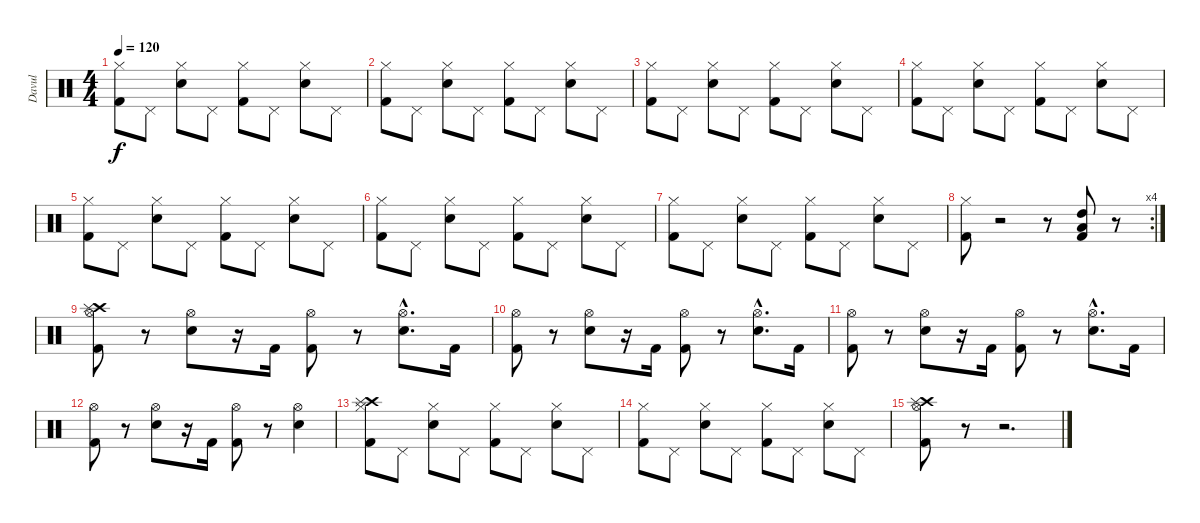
\track ("Davul" "Davul") {instrument percussion}
\staff {score}
\articulation defaults
\ts (4 4)
\tempo 120
\clef neutral
\ks c
("Hi-Hat (closed)" "Kick (hit) 2").8{dy f} "Pedal Hi-Hat (hit)".8 ("Hi-Hat (closed)" "Snare (hit) 2").8 "Pedal Hi-Hat (hit)".8 ("Hi-Hat (closed)" "Kick (hit) 2").8 "Pedal Hi-Hat (hit)".8 ("Hi-Hat (closed)" "Snare (hit) 2").8 "Pedal Hi-Hat (hit)".8 |
("Hi-Hat (closed)" "Kick (hit) 2").8 "Pedal Hi-Hat (hit)".8 ("Hi-Hat (closed)" "Snare (hit) 2").8 "Pedal Hi-Hat (hit)".8 ("Hi-Hat (closed)" "Kick (hit) 2").8 "Pedal Hi-Hat (hit)".8 ("Hi-Hat (closed)" "Snare (hit) 2").8 "Pedal Hi-Hat (hit)".8 |
("Hi-Hat (closed)" "Kick (hit) 2").8 "Pedal Hi-Hat (hit)".8 ("Hi-Hat (closed)" "Snare (hit) 2").8 "Pedal Hi-Hat (hit)".8 ("Hi-Hat (closed)" "Kick (hit) 2").8 "Pedal Hi-Hat (hit)".8 ("Hi-Hat (closed)" "Snare (hit) 2").8 "Pedal Hi-Hat (hit)".8 |
("Hi-Hat (closed)" "Kick (hit) 2").8 "Pedal Hi-Hat (hit)".8 ("Hi-Hat (closed)" "Snare (hit) 2").8 "Pedal Hi-Hat (hit)".8 ("Hi-Hat (closed)" "Kick (hit) 2").8 "Pedal Hi-Hat (hit)".8 ("Hi-Hat (closed)" "Snare (hit) 2").8 "Pedal Hi-Hat (hit)".8 |
("Hi-Hat (closed)" "Kick (hit) 2").8 "Pedal Hi-Hat (hit)".8 ("Hi-Hat (closed)" "Snare (hit) 2").8 "Pedal Hi-Hat (hit)".8 ("Hi-Hat (closed)" "Kick (hit) 2").8 "Pedal Hi-Hat (hit)".8 ("Hi-Hat (closed)" "Snare (hit) 2").8 "Pedal Hi-Hat (hit)".8 |
("Hi-Hat (closed)" "Kick (hit) 2").8 "Pedal Hi-Hat (hit)".8 ("Hi-Hat (closed)" "Snare (hit) 2").8 "Pedal Hi-Hat (hit)".8 ("Hi-Hat (closed)" "Kick (hit) 2").8 "Pedal Hi-Hat (hit)".8 ("Hi-Hat (closed)" "Snare (hit) 2").8 "Pedal Hi-Hat (hit)".8 |
("Hi-Hat (closed)" "Kick (hit) 2").8 "Pedal Hi-Hat (hit)".8 ("Hi-Hat (closed)" "Snare (hit) 2").8 "Pedal Hi-Hat (hit)".8 ("Hi-Hat (closed)" "Kick (hit) 2").8 "Pedal Hi-Hat (hit)".8 ("Hi-Hat (closed)" "Snare (hit) 2").8 "Pedal Hi-Hat (hit)".8 |
\rc 4
("Hi-Hat (closed)" "Kick (hit) 2").8 r.2 r.8 ("Kick (hit) 2" "Low Tom (hit)" "High Tom (hit)").8 r.8 |
("Hi-Hat (open)" "Kick (hit) 2" "Crash high (hit)" "Splash (hit)").8 r.8 ("Hi-Hat (open)" "Snare (hit) 2").8 r.16 "Kick (hit) 2".16 ("Hi-Hat (open)" "Kick (hit) 2").8 r.8 ("Hi-Hat (open)"{hac} "Snare (hit) 2"{hac}).8{d} "Kick (hit) 2".16 |
("Hi-Hat (open)" "Kick (hit) 2").8 r.8 ("Hi-Hat (open)" "Snare (hit) 2").8 r.16 "Kick (hit) 2".16 ("Hi-Hat (open)" "Kick (hit) 2").8 r.8 ("Hi-Hat (open)"{hac} "Snare (hit) 2"{hac}).8{d} "Kick (hit) 2".16 |
("Hi-Hat (open)" "Kick (hit) 2").8 r.8 ("Hi-Hat (open)" "Snare (hit) 2").8 r.16 "Kick (hit) 2".16 ("Hi-Hat (open)" "Kick (hit) 2").8 r.8 ("Hi-Hat (open)"{hac} "Snare (hit) 2"{hac}).8{d} "Kick (hit) 2".16 |
("Hi-Hat (open)" "Kick (hit) 2").8 r.8 ("Hi-Hat (open)" "Snare (hit) 2").8 r.16 "Kick (hit) 2".16 ("Hi-Hat (open)" "Kick (hit) 2").8 r.8 ("Hi-Hat (open)" "Snare (hit) 2").4 |
("Hi-Hat (closed)" "Kick (hit) 2" "Crash high (hit)" "Splash (hit)").8 "Pedal Hi-Hat (hit)".8 ("Hi-Hat (closed)" "Snare (hit) 2").8 "Pedal Hi-Hat (hit)".8 ("Hi-Hat (closed)" "Kick (hit) 2").8 "Pedal Hi-Hat (hit)".8 ("Hi-Hat (closed)" "Snare (hit) 2").8 "Pedal Hi-Hat (hit)".8 |
("Hi-Hat (closed)" "Kick (hit) 2").8 "Pedal Hi-Hat (hit)".8 ("Hi-Hat (closed)" "Snare (hit) 2").8 "Pedal Hi-Hat (hit)".8 ("Hi-Hat (closed)" "Kick (hit) 2").8 "Pedal Hi-Hat (hit)".8 ("Hi-Hat (closed)" "Snare (hit) 2").8 "Pedal Hi-Hat (hit)".8 |
("Hi-Hat (open)" "Kick (hit) 2" "Crash high (hit)" "Splash (hit)").8 r.8 r.2{d}
